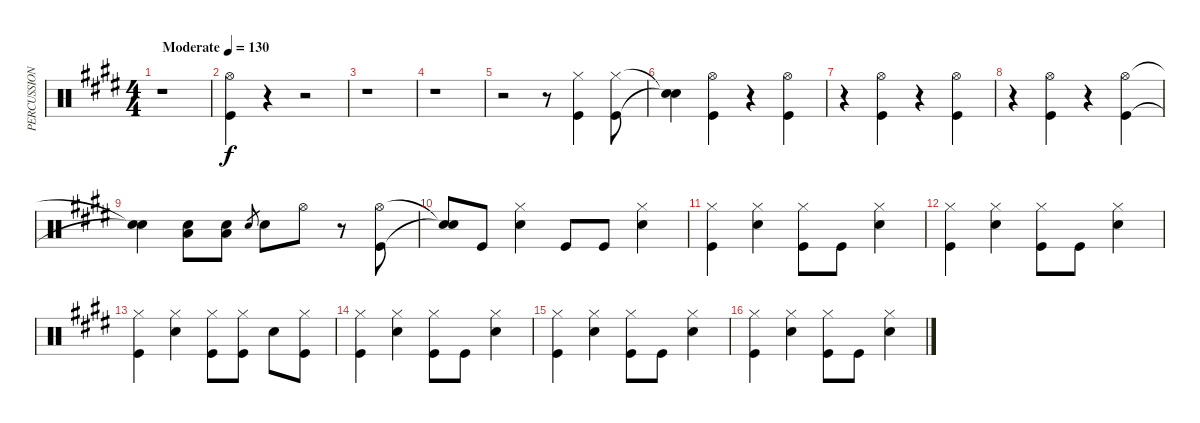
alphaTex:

\track ("PERCUSSION" "PERCUSSION") {instrument percussion}
\staff {score}
\articulation defaults
\ts (4 4)
\tempo (130 "Moderate")
\clef neutral
\ks e
r.1{dy f} |
("Hi-Hat (open)" "Kick (hit)").4 r.4 r.2 |
r.1 |
r.1 |
r.2 r.8 ("Hi-Hat (closed)" "Kick (hit)").4 ("Hi-Hat (closed)" "Kick (hit)").8 |
("Snare (hit)"{t} "Snare (hit)"{t}).4 ("Hi-Hat (open)" "Kick (hit)").4 r.4 ("Hi-Hat (open)" "Kick (hit)").4 |
r.4 ("Hi-Hat (open)" "Kick (hit)").4 r.4 ("Hi-Hat (open)" "Kick (hit)").4 |
r.4 ("Hi-Hat (open)" "Kick (hit)").4 r.4 ("Hi-Hat (open)" "Kick (hit)").4 |
("Snare (hit)"{t} "Snare (hit)"{t}).4 ("Snare (hit) 2" "Low Tom (hit)").8 ("Snare (hit) 2" "Low Tom (hit)").8 "Snare (hit) 2".8{gr} "Snare (hit) 2".8 "Hi-Hat (open)".8 r.8 ("Hi-Hat (open)" "Kick (hit)").8 |
("Snare (hit)"{t} "Snare (hit)"{t}).8 "Kick (hit)".8 ("Hi-Hat (closed)" "Snare (hit) 2").4 "Kick (hit)".8 "Kick (hit)".8 ("Hi-Hat (closed)" "Snare (hit) 2").4 |
("Hi-Hat (closed)" "Kick (hit)").4 ("Hi-Hat (closed)" "Snare (hit) 2").4 ("Hi-Hat (closed)" "Kick (hit)").8 "Kick (hit)".8 ("Hi-Hat (closed)" "Snare (hit) 2").4 |
("Hi-Hat (closed)" "Kick (hit)").4 ("Hi-Hat (closed)" "Snare (hit) 2").4 ("Hi-Hat (closed)" "Kick (hit)").8 "Kick (hit)".8 ("Hi-Hat (closed)" "Snare (hit) 2").4 |
("Hi-Hat (closed)" "Kick (hit)").4 ("Hi-Hat (closed)" "Snare (hit) 2").4 ("Hi-Hat (closed)" "Kick (hit)").8 ("Hi-Hat (closed)" "Kick (hit)").8 "Snare (hit) 2".8 ("Hi-Hat (closed)" "Kick (hit)").8 |
("Hi-Hat (closed)" "Kick (hit)").4 ("Hi-Hat (closed)" "Snare (hit) 2").4 ("Hi-Hat (closed)" "Kick (hit)").8 "Kick (hit)".8 ("Hi-Hat (closed)" "Snare (hit) 2").4 |
("Hi-Hat (closed)" "Kick (hit)").4 ("Hi-Hat (closed)" "Snare (hit) 2").4 ("Hi-Hat (closed)" "Kick (hit)").8 "Kick (hit)".8 ("Hi-Hat (closed)" "Snare (hit) 2").4 |
("Hi-Hat (closed)" "Kick (hit)").4 ("Hi-Hat (closed)" "Snare (hit) 2").4 ("Hi-Hat (closed)" "Kick (hit)").8 "Kick (hit)".8 ("Hi-Hat (closed)" "Snare (hit) 2").4
